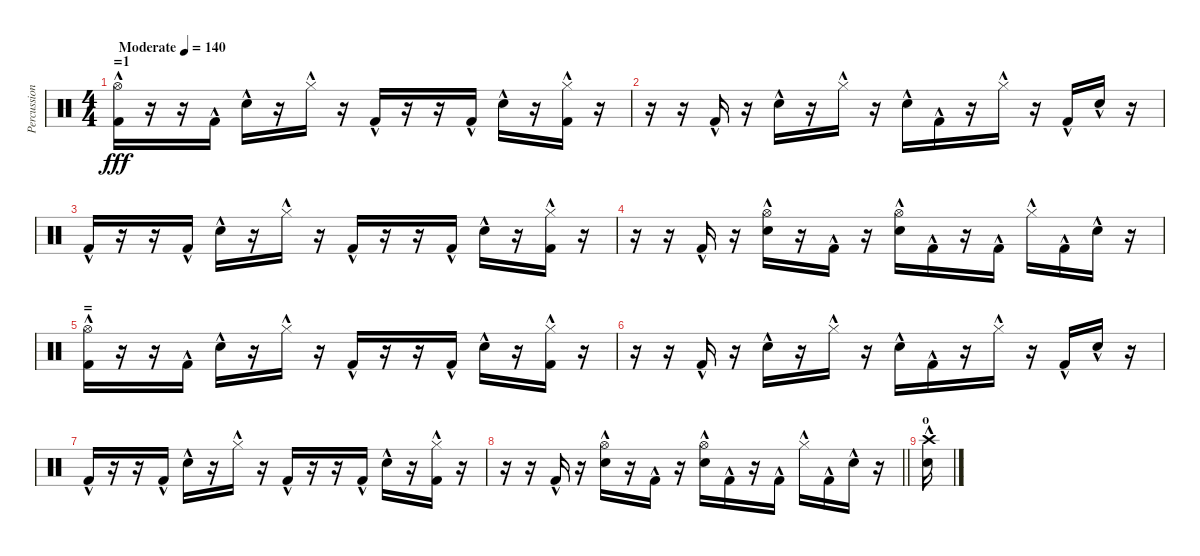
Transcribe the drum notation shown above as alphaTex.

\track ("Percussion" "Percussion") {instrument percussion}
\staff {score}
\articulation defaults
\ts (4 4)
\section ("" "=1")
\tempo (140 "Moderate")
\clef neutral
\ks c
("Kick (hit) 2"{hac} "Hi-Hat (open)"{hac}).16{dy fff} r.16 r.16 "Kick (hit) 2"{hac}.16 "Electric Snare (hit)"{hac}.16 r.16 "Hi-Hat (closed)"{hac}.16 r.16 "Kick (hit) 2"{hac}.16 r.16 r.16 "Kick (hit) 2"{hac}.16 "Electric Snare (hit)"{hac}.16 r.16 ("Kick (hit) 2"{hac} "Hi-Hat (closed)"{hac}).16 r.16 |
r.16 r.16 "Kick (hit) 2"{hac}.16 r.16 "Electric Snare (hit)"{hac}.16 r.16 "Hi-Hat (closed)"{hac}.16 r.16 "Electric Snare (hit)"{hac}.16 "Kick (hit) 2"{hac}.16 r.16 "Hi-Hat (closed)"{hac}.16 r.16 "Kick (hit) 2"{hac}.16 "Electric Snare (hit)"{hac}.16 r.16 |
"Kick (hit) 2"{hac}.16 r.16 r.16 "Kick (hit) 2"{hac}.16 "Electric Snare (hit)"{hac}.16 r.16 "Hi-Hat (closed)"{hac}.16 r.16 "Kick (hit) 2"{hac}.16 r.16 r.16 "Kick (hit) 2"{hac}.16 "Electric Snare (hit)"{hac}.16 r.16 ("Kick (hit) 2"{hac} "Hi-Hat (closed)"{hac}).16 r.16 |
r.16 r.16 "Kick (hit) 2"{hac}.16 r.16 ("Electric Snare (hit)"{hac} "Hi-Hat (open)"{hac}).16 r.16 "Kick (hit) 2"{hac}.16 r.16 ("Electric Snare (hit)"{hac} "Hi-Hat (open)"{hac}).16 "Kick (hit) 2"{hac}.16 r.16 "Kick (hit) 2"{hac}.16 "Hi-Hat (closed)"{hac}.16 "Kick (hit) 2"{hac}.16 "Electric Snare (hit)"{hac}.16 r.16 |
\section ("" "=")
("Kick (hit) 2"{hac} "Hi-Hat (open)"{hac}).16 r.16 r.16 "Kick (hit) 2"{hac}.16 "Electric Snare (hit)"{hac}.16 r.16 "Hi-Hat (closed)"{hac}.16 r.16 "Kick (hit) 2"{hac}.16 r.16 r.16 "Kick (hit) 2"{hac}.16 "Electric Snare (hit)"{hac}.16 r.16 ("Kick (hit) 2"{hac} "Hi-Hat (closed)"{hac}).16 r.16 |
r.16 r.16 "Kick (hit) 2"{hac}.16 r.16 "Electric Snare (hit)"{hac}.16 r.16 "Hi-Hat (closed)"{hac}.16 r.16 "Electric Snare (hit)"{hac}.16 "Kick (hit) 2"{hac}.16 r.16 "Hi-Hat (closed)"{hac}.16 r.16 "Kick (hit) 2"{hac}.16 "Electric Snare (hit)"{hac}.16 r.16 |
"Kick (hit) 2"{hac}.16 r.16 r.16 "Kick (hit) 2"{hac}.16 "Electric Snare (hit)"{hac}.16 r.16 "Hi-Hat (closed)"{hac}.16 r.16 "Kick (hit) 2"{hac}.16 r.16 r.16 "Kick (hit) 2"{hac}.16 "Electric Snare (hit)"{hac}.16 r.16 ("Kick (hit) 2"{hac} "Hi-Hat (closed)"{hac}).16 r.16 |
\barLineRight lightlight
r.16 r.16 "Kick (hit) 2"{hac}.16 r.16 ("Electric Snare (hit)"{hac} "Hi-Hat (open)"{hac}).16 r.16 "Kick (hit) 2"{hac}.16 r.16 ("Electric Snare (hit)"{hac} "Hi-Hat (open)"{hac}).16 "Kick (hit) 2"{hac}.16 r.16 "Kick (hit) 2"{hac}.16 "Hi-Hat (closed)"{hac}.16 "Kick (hit) 2"{hac}.16 "Electric Snare (hit)"{hac}.16 r.16 |
\section ("" "o")
("Electric Snare (hit)"{hac} "Crash high (hit)"{hac}).16
